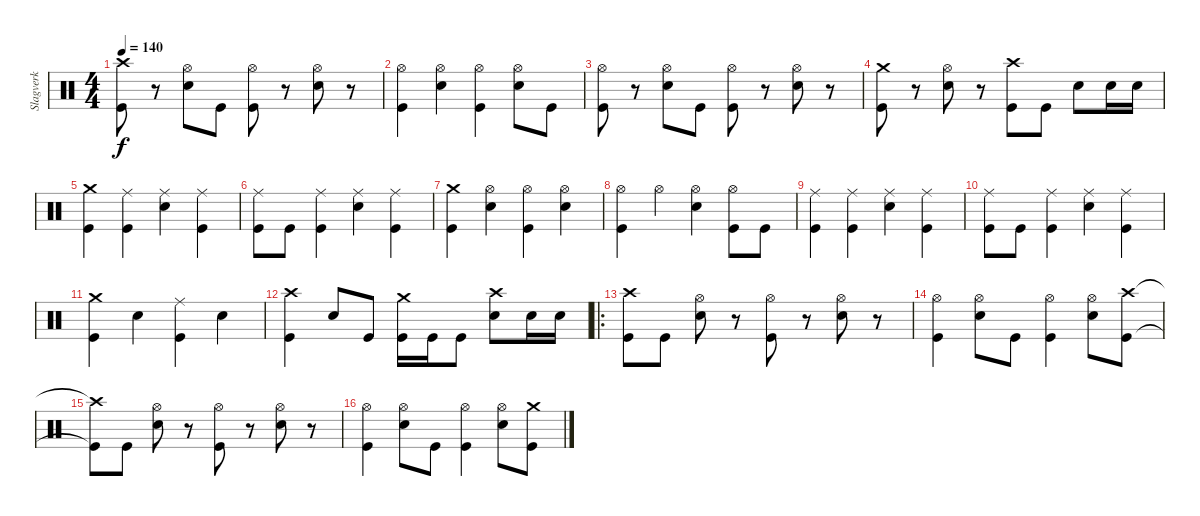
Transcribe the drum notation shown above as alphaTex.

\track ("Slagverk" "Slagverk") {instrument percussion}
\staff {score}
\articulation defaults
\ts (4 4)
\tempo 140
\clef neutral
\ks c
("Crash high (hit)" "Kick (hit)").8{dy f} r.8 ("Hi-Hat (open)" "Electric Snare (hit)").8 "Kick (hit)".8 ("Hi-Hat (open)" "Kick (hit)").8 r.8 ("Hi-Hat (open)" "Electric Snare (hit)").8 r.8 |
("Hi-Hat (open)" "Kick (hit)").4 ("Hi-Hat (open)" "Electric Snare (hit)").4 ("Hi-Hat (open)" "Kick (hit)").4 ("Hi-Hat (open)" "Electric Snare (hit)").8 "Kick (hit)".8 |
("Hi-Hat (open)" "Kick (hit)").8 r.8 ("Hi-Hat (open)" "Electric Snare (hit)").8 "Kick (hit)".8 ("Hi-Hat (open)" "Kick (hit)").8 r.8 ("Hi-Hat (open)" "Electric Snare (hit)").8 r.8 |
("Crash medium (hit)" "Kick (hit)").8 r.8 ("Hi-Hat (open)" "Electric Snare (hit)").8 r.8 ("Crash high (hit)" "Kick (hit)").8 "Kick (hit)".8 "Electric Snare (hit)".8 "Electric Snare (hit)".16 "Electric Snare (hit)".16 |
("Crash medium (hit)" "Kick (hit)").4 ("Ride (middle)" "Kick (hit)").4 ("Ride (middle)" "Electric Snare (hit)").4 ("Ride (middle)" "Kick (hit)").4 |
("Ride (middle)" "Kick (hit)").8 "Kick (hit)".8 ("Ride (middle)" "Kick (hit)").4 ("Ride (middle)" "Electric Snare (hit)").4 ("Ride (middle)" "Kick (hit)").4 |
("Crash medium (hit)" "Kick (hit)").4 ("Hi-Hat (open)" "Electric Snare (hit)").4 ("Hi-Hat (open)" "Kick (hit)").4 ("Hi-Hat (open)" "Electric Snare (hit)").4 |
("Hi-Hat (open)" "Kick (hit)").4 "Hi-Hat (open)".4 ("Hi-Hat (open)" "Electric Snare (hit)").4 ("Hi-Hat (open)" "Kick (hit)").8 "Kick (hit)".8 |
("Ride (middle)" "Kick (hit)").4 ("Ride (middle)" "Kick (hit)").4 ("Ride (middle)" "Electric Snare (hit)").4 ("Ride (middle)" "Kick (hit)").4 |
("Ride (middle)" "Kick (hit)").8 "Kick (hit)".8 ("Ride (middle)" "Kick (hit)").4 ("Ride (middle)" "Electric Snare (hit)").4 ("Ride (middle)" "Kick (hit)").4 |
("Crash medium (hit)" "Kick (hit)").4 "Electric Snare (hit)".4 ("Ride (middle)" "Kick (hit)").4 "Electric Snare (hit)".4 |
("Crash high (hit)" "Kick (hit)").4 "Electric Snare (hit)".8 "Kick (hit)".8 ("Crash medium (hit)" "Kick (hit)").16 "Kick (hit)".16 "Kick (hit)".8 ("Crash high (hit)" "Electric Snare (hit)").8 "Electric Snare (hit)".16 "Electric Snare (hit)".16 |
\ro
("Crash high (hit)" "Kick (hit)").8 "Kick (hit)".8 ("Hi-Hat (open)" "Electric Snare (hit)").8 r.8 ("Hi-Hat (open)" "Kick (hit)").8 r.8 ("Hi-Hat (open)" "Electric Snare (hit)").8 r.8 |
("Hi-Hat (open)" "Kick (hit)").4 ("Hi-Hat (open)" "Electric Snare (hit)").8 "Kick (hit)".8 ("Hi-Hat (open)" "Kick (hit)").4 ("Hi-Hat (open)" "Electric Snare (hit)").8 ("Crash high (hit)" "Kick (hit)").8 |
("Crash high (hit)"{t} "Kick (hit)"{t}).8 "Kick (hit)".8 ("Hi-Hat (open)" "Electric Snare (hit)").8 r.8 ("Hi-Hat (open)" "Kick (hit)").8 r.8 ("Hi-Hat (open)" "Electric Snare (hit)").8 r.8 |
("Hi-Hat (open)" "Kick (hit)").4 ("Hi-Hat (open)" "Electric Snare (hit)").8 "Kick (hit)".8 ("Hi-Hat (open)" "Kick (hit)").4 ("Hi-Hat (open)" "Electric Snare (hit)").8 ("Crash medium (hit)" "Kick (hit)").8
